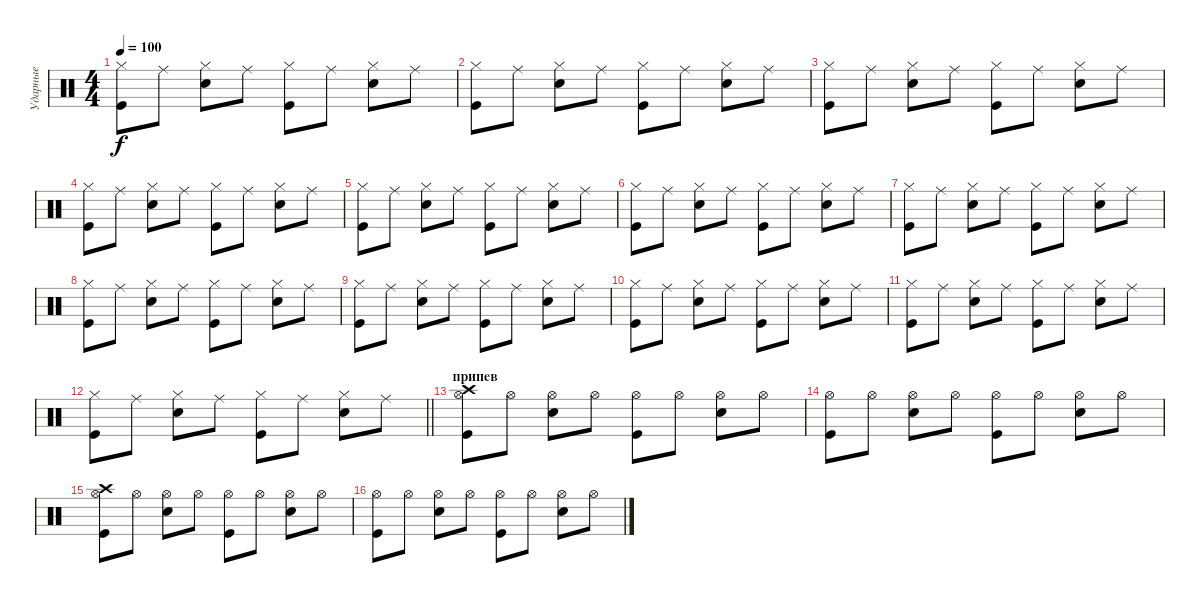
\track ("Ударные" "Ударные") {instrument percussion}
\staff {score}
\articulation defaults
\ts (4 4)
\tempo 100
\clef neutral
\ks c
("Hi-Hat (closed)" "Kick (hit)").8{dy f} "Ride (middle)".8 ("Hi-Hat (closed)" "Snare (hit) 2").8 "Ride (middle)".8 ("Hi-Hat (closed)" "Kick (hit)").8 "Ride (middle)".8 ("Hi-Hat (closed)" "Snare (hit) 2").8 "Ride (middle)".8 |
("Hi-Hat (closed)" "Kick (hit)").8 "Ride (middle)".8 ("Hi-Hat (closed)" "Snare (hit) 2").8 "Ride (middle)".8 ("Hi-Hat (closed)" "Kick (hit)").8 "Ride (middle)".8 ("Hi-Hat (closed)" "Snare (hit) 2").8 "Ride (middle)".8 |
("Hi-Hat (closed)" "Kick (hit)").8 "Ride (middle)".8 ("Hi-Hat (closed)" "Snare (hit) 2").8 "Ride (middle)".8 ("Hi-Hat (closed)" "Kick (hit)").8 "Ride (middle)".8 ("Hi-Hat (closed)" "Snare (hit) 2").8 "Ride (middle)".8 |
("Hi-Hat (closed)" "Kick (hit)").8 "Ride (middle)".8 ("Hi-Hat (closed)" "Snare (hit) 2").8 "Ride (middle)".8 ("Hi-Hat (closed)" "Kick (hit)").8 "Ride (middle)".8 ("Hi-Hat (closed)" "Snare (hit) 2").8 "Ride (middle)".8 |
("Hi-Hat (closed)" "Kick (hit)").8 "Ride (middle)".8 ("Hi-Hat (closed)" "Snare (hit) 2").8 "Ride (middle)".8 ("Hi-Hat (closed)" "Kick (hit)").8 "Ride (middle)".8 ("Hi-Hat (closed)" "Snare (hit) 2").8 "Ride (middle)".8 |
("Hi-Hat (closed)" "Kick (hit)").8 "Ride (middle)".8 ("Hi-Hat (closed)" "Snare (hit) 2").8 "Ride (middle)".8 ("Hi-Hat (closed)" "Kick (hit)").8 "Ride (middle)".8 ("Hi-Hat (closed)" "Snare (hit) 2").8 "Ride (middle)".8 |
("Hi-Hat (closed)" "Kick (hit)").8 "Ride (middle)".8 ("Hi-Hat (closed)" "Snare (hit) 2").8 "Ride (middle)".8 ("Hi-Hat (closed)" "Kick (hit)").8 "Ride (middle)".8 ("Hi-Hat (closed)" "Snare (hit) 2").8 "Ride (middle)".8 |
("Hi-Hat (closed)" "Kick (hit)").8 "Ride (middle)".8 ("Hi-Hat (closed)" "Snare (hit) 2").8 "Ride (middle)".8 ("Hi-Hat (closed)" "Kick (hit)").8 "Ride (middle)".8 ("Hi-Hat (closed)" "Snare (hit) 2").8 "Ride (middle)".8 |
("Hi-Hat (closed)" "Kick (hit)").8 "Ride (middle)".8 ("Hi-Hat (closed)" "Snare (hit) 2").8 "Ride (middle)".8 ("Hi-Hat (closed)" "Kick (hit)").8 "Ride (middle)".8 ("Hi-Hat (closed)" "Snare (hit) 2").8 "Ride (middle)".8 |
("Hi-Hat (closed)" "Kick (hit)").8 "Ride (middle)".8 ("Hi-Hat (closed)" "Snare (hit) 2").8 "Ride (middle)".8 ("Hi-Hat (closed)" "Kick (hit)").8 "Ride (middle)".8 ("Hi-Hat (closed)" "Snare (hit) 2").8 "Ride (middle)".8 |
("Hi-Hat (closed)" "Kick (hit)").8 "Ride (middle)".8 ("Hi-Hat (closed)" "Snare (hit) 2").8 "Ride (middle)".8 ("Hi-Hat (closed)" "Kick (hit)").8 "Ride (middle)".8 ("Hi-Hat (closed)" "Snare (hit) 2").8 "Ride (middle)".8 |
\barLineRight lightlight
("Hi-Hat (closed)" "Kick (hit)").8 "Ride (middle)".8 ("Hi-Hat (closed)" "Snare (hit) 2").8 "Ride (middle)".8 ("Hi-Hat (closed)" "Kick (hit)").8 "Ride (middle)".8 ("Hi-Hat (closed)" "Snare (hit) 2").8 "Ride (middle)".8 |
\section ("" "припев")
("Hi-Hat (open)" "Kick (hit)" "Crash high (hit)").8 "Hi-Hat (open)".8 ("Hi-Hat (open)" "Snare (hit) 2").8 "Hi-Hat (open)".8 ("Hi-Hat (open)" "Kick (hit)").8 "Hi-Hat (open)".8 ("Hi-Hat (open)" "Snare (hit) 2").8 "Hi-Hat (open)".8 |
("Hi-Hat (open)" "Kick (hit)").8 "Hi-Hat (open)".8 ("Hi-Hat (open)" "Snare (hit) 2").8 "Hi-Hat (open)".8 ("Hi-Hat (open)" "Kick (hit)").8 "Hi-Hat (open)".8 ("Hi-Hat (open)" "Snare (hit) 2").8 "Hi-Hat (open)".8 |
("Hi-Hat (open)" "Kick (hit)" "Crash high (hit)").8 "Hi-Hat (open)".8 ("Hi-Hat (open)" "Snare (hit) 2").8 "Hi-Hat (open)".8 ("Hi-Hat (open)" "Kick (hit)").8 "Hi-Hat (open)".8 ("Hi-Hat (open)" "Snare (hit) 2").8 "Hi-Hat (open)".8 |
("Hi-Hat (open)" "Kick (hit)").8 "Hi-Hat (open)".8 ("Hi-Hat (open)" "Snare (hit) 2").8 "Hi-Hat (open)".8 ("Hi-Hat (open)" "Kick (hit)").8 "Hi-Hat (open)".8 ("Hi-Hat (open)" "Snare (hit) 2").8 "Hi-Hat (open)".8
